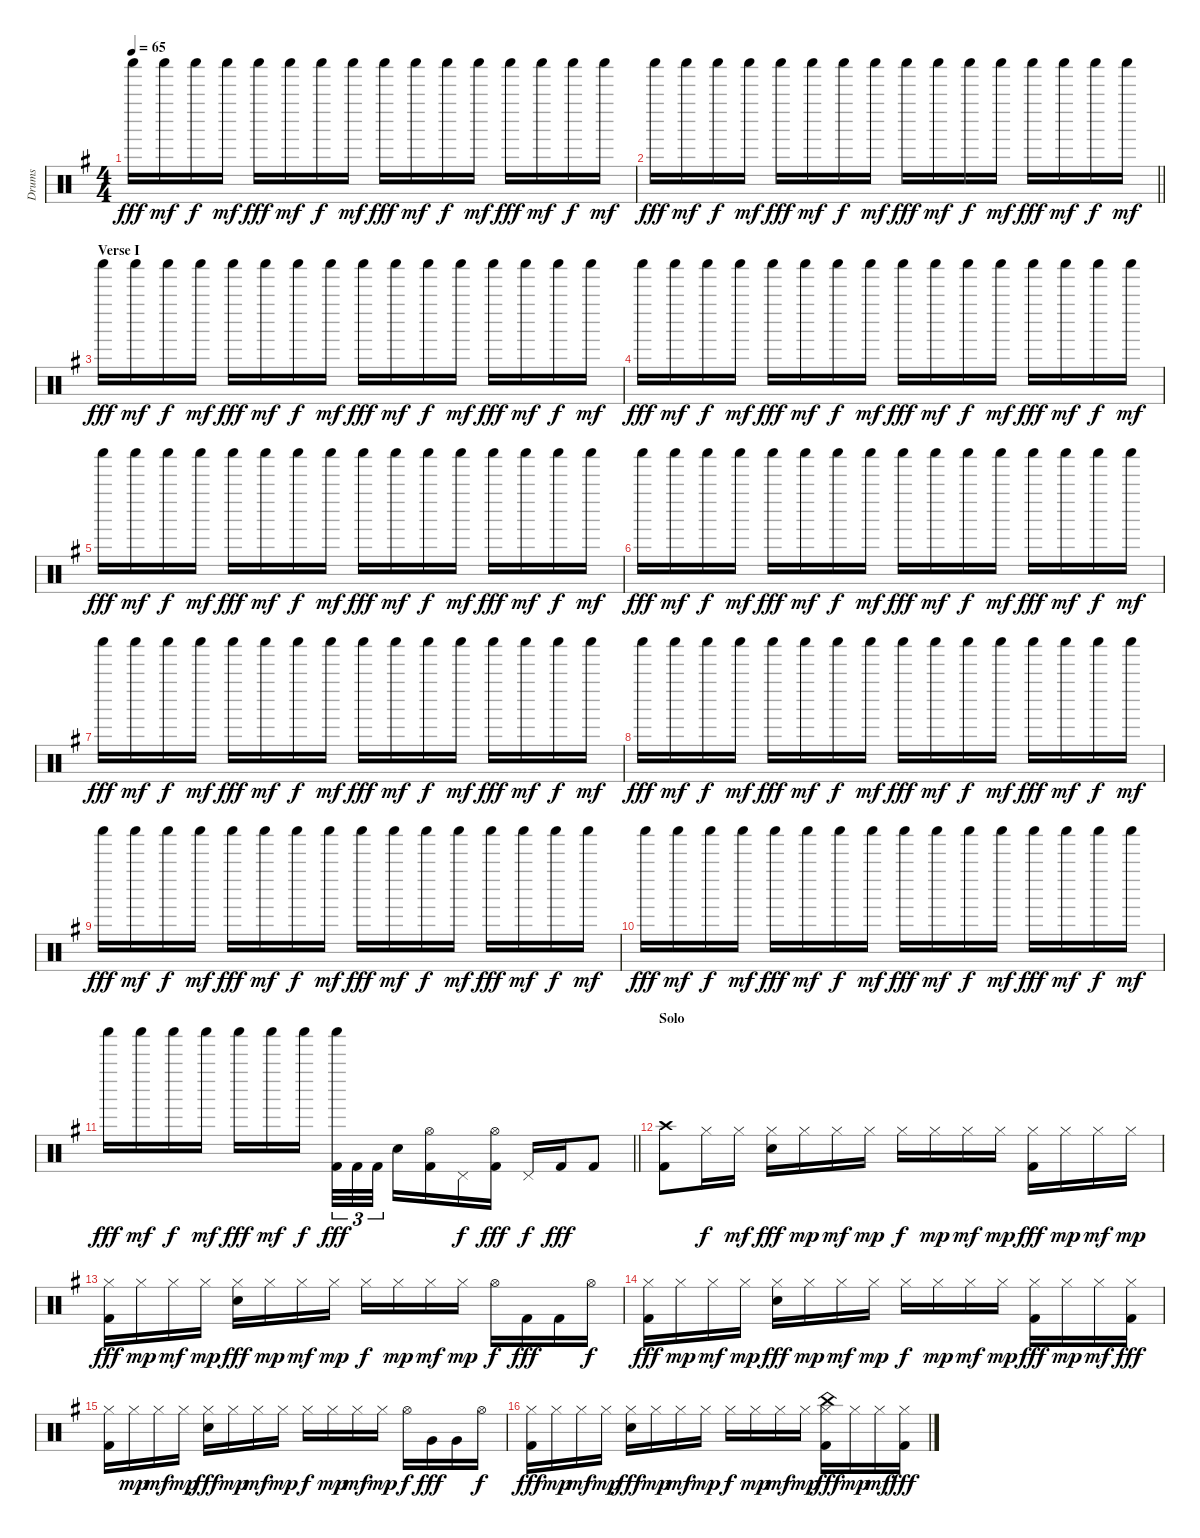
\track ("Drums" "Drums") {instrument percussion}
\staff {score}
\articulation defaults
\ts (4 4)
\tempo 65
\clef neutral
\ks eminor "Shaker (hit)".16{dy fff} "Shaker (hit)".16{dy mf} "Shaker (hit)".16{dy f} "Shaker (hit)".16{dy mf} "Shaker (hit)".16{dy fff} "Shaker (hit)".16{dy mf} "Shaker (hit)".16{dy f} "Shaker (hit)".16{dy mf} "Shaker (hit)".16{dy fff} "Shaker (hit)".16{dy mf} "Shaker (hit)".16{dy f} "Shaker (hit)".16{dy mf} "Shaker (hit)".16{dy fff} "Shaker (hit)".16{dy mf} "Shaker (hit)".16{dy f} "Shaker (hit)".16{dy mf}
|
\barLineRight lightlight "Shaker (hit)".16{dy fff} "Shaker (hit)".16{dy mf} "Shaker (hit)".16{dy f} "Shaker (hit)".16{dy mf} "Shaker (hit)".16{dy fff} "Shaker (hit)".16{dy mf} "Shaker (hit)".16{dy f} "Shaker (hit)".16{dy mf} "Shaker (hit)".16{dy fff} "Shaker (hit)".16{dy mf} "Shaker (hit)".16{dy f} "Shaker (hit)".16{dy mf} "Shaker (hit)".16{dy fff} "Shaker (hit)".16{dy mf} "Shaker (hit)".16{dy f} "Shaker (hit)".16{dy mf}
|
\section ("" "Verse I")
"Shaker (hit)".16{dy fff} "Shaker (hit)".16{dy mf} "Shaker (hit)".16{dy f} "Shaker (hit)".16{dy mf} "Shaker (hit)".16{dy fff} "Shaker (hit)".16{dy mf} "Shaker (hit)".16{dy f} "Shaker (hit)".16{dy mf} "Shaker (hit)".16{dy fff} "Shaker (hit)".16{dy mf} "Shaker (hit)".16{dy f} "Shaker (hit)".16{dy mf} "Shaker (hit)".16{dy fff} "Shaker (hit)".16{dy mf} "Shaker (hit)".16{dy f} "Shaker (hit)".16{dy mf} |
"Shaker (hit)".16{dy fff} "Shaker (hit)".16{dy mf} "Shaker (hit)".16{dy f} "Shaker (hit)".16{dy mf} "Shaker (hit)".16{dy fff} "Shaker (hit)".16{dy mf} "Shaker (hit)".16{dy f} "Shaker (hit)".16{dy mf} "Shaker (hit)".16{dy fff} "Shaker (hit)".16{dy mf} "Shaker (hit)".16{dy f} "Shaker (hit)".16{dy mf} "Shaker (hit)".16{dy fff} "Shaker (hit)".16{dy mf} "Shaker (hit)".16{dy f} "Shaker (hit)".16{dy mf} |
"Shaker (hit)".16{dy fff} "Shaker (hit)".16{dy mf} "Shaker (hit)".16{dy f} "Shaker (hit)".16{dy mf} "Shaker (hit)".16{dy fff} "Shaker (hit)".16{dy mf} "Shaker (hit)".16{dy f} "Shaker (hit)".16{dy mf} "Shaker (hit)".16{dy fff} "Shaker (hit)".16{dy mf} "Shaker (hit)".16{dy f} "Shaker (hit)".16{dy mf} "Shaker (hit)".16{dy fff} "Shaker (hit)".16{dy mf} "Shaker (hit)".16{dy f} "Shaker (hit)".16{dy mf} |
"Shaker (hit)".16{dy fff} "Shaker (hit)".16{dy mf} "Shaker (hit)".16{dy f} "Shaker (hit)".16{dy mf} "Shaker (hit)".16{dy fff} "Shaker (hit)".16{dy mf} "Shaker (hit)".16{dy f} "Shaker (hit)".16{dy mf} "Shaker (hit)".16{dy fff} "Shaker (hit)".16{dy mf} "Shaker (hit)".16{dy f} "Shaker (hit)".16{dy mf} "Shaker (hit)".16{dy fff} "Shaker (hit)".16{dy mf} "Shaker (hit)".16{dy f} "Shaker (hit)".16{dy mf} |
"Shaker (hit)".16{dy fff} "Shaker (hit)".16{dy mf} "Shaker (hit)".16{dy f} "Shaker (hit)".16{dy mf} "Shaker (hit)".16{dy fff} "Shaker (hit)".16{dy mf} "Shaker (hit)".16{dy f} "Shaker (hit)".16{dy mf} "Shaker (hit)".16{dy fff} "Shaker (hit)".16{dy mf} "Shaker (hit)".16{dy f} "Shaker (hit)".16{dy mf} "Shaker (hit)".16{dy fff} "Shaker (hit)".16{dy mf} "Shaker (hit)".16{dy f} "Shaker (hit)".16{dy mf} |
"Shaker (hit)".16{dy fff} "Shaker (hit)".16{dy mf} "Shaker (hit)".16{dy f} "Shaker (hit)".16{dy mf} "Shaker (hit)".16{dy fff} "Shaker (hit)".16{dy mf} "Shaker (hit)".16{dy f} "Shaker (hit)".16{dy mf} "Shaker (hit)".16{dy fff} "Shaker (hit)".16{dy mf} "Shaker (hit)".16{dy f} "Shaker (hit)".16{dy mf} "Shaker (hit)".16{dy fff} "Shaker (hit)".16{dy mf} "Shaker (hit)".16{dy f} "Shaker (hit)".16{dy mf} |
"Shaker (hit)".16{dy fff} "Shaker (hit)".16{dy mf} "Shaker (hit)".16{dy f} "Shaker (hit)".16{dy mf} "Shaker (hit)".16{dy fff} "Shaker (hit)".16{dy mf} "Shaker (hit)".16{dy f} "Shaker (hit)".16{dy mf} "Shaker (hit)".16{dy fff} "Shaker (hit)".16{dy mf} "Shaker (hit)".16{dy f} "Shaker (hit)".16{dy mf} "Shaker (hit)".16{dy fff} "Shaker (hit)".16{dy mf} "Shaker (hit)".16{dy f} "Shaker (hit)".16{dy mf} |
"Shaker (hit)".16{dy fff} "Shaker (hit)".16{dy mf} "Shaker (hit)".16{dy f} "Shaker (hit)".16{dy mf} "Shaker (hit)".16{dy fff} "Shaker (hit)".16{dy mf} "Shaker (hit)".16{dy f} "Shaker (hit)".16{dy mf} "Shaker (hit)".16{dy fff} "Shaker (hit)".16{dy mf} "Shaker (hit)".16{dy f} "Shaker (hit)".16{dy mf} "Shaker (hit)".16{dy fff} "Shaker (hit)".16{dy mf} "Shaker (hit)".16{dy f} "Shaker (hit)".16{dy mf} |
\barLineRight lightlight "Shaker (hit)".16{dy fff} "Shaker (hit)".16{dy mf} "Shaker (hit)".16{dy f} "Shaker (hit)".16{dy mf} "Shaker (hit)".16{dy fff} "Shaker (hit)".16{dy mf} "Shaker (hit)".16{dy f beam splitsecondary}
("Shaker (hit)" "Kick (hit) 2").32{tu (3 2) dy fff} "Kick (hit) 2".32{tu (3 2)} "Kick (hit) 2".32{tu (3 2)} "Snare (hit) 2".16 ("Hi-Hat (open)" "Kick (hit) 2").16 "Pedal Hi-Hat (hit)".16{dy f} ("Hi-Hat (open)" "Kick (hit) 2").16{dy fff} "Pedal Hi-Hat (hit)".16{dy f} "Kick (hit) 2".16{dy fff} "Kick (hit) 2".8 |
\section ("" "Solo")
("Crash high (hit)" "Kick (hit) 2").8 "Hi-Hat (closed)".16{dy f} "Hi-Hat (closed)".16{dy mf} ("Hi-Hat (closed)" "Snare (hit) 2").16{dy fff} "Hi-Hat (closed)".16{dy mp} "Hi-Hat (closed)".16{dy mf} "Hi-Hat (closed)".16{dy mp} "Hi-Hat (closed)".16{dy f} "Hi-Hat (closed)".16{dy mp} "Hi-Hat (closed)".16{dy mf} "Hi-Hat (closed)".16{dy mp} ("Hi-Hat (closed)" "Kick (hit) 2").16{dy fff} "Hi-Hat (closed)".16{dy mp} "Hi-Hat (closed)".16{dy mf} "Hi-Hat (closed)".16{dy mp} |
("Hi-Hat (closed)" "Kick (hit) 2").16{dy fff} "Hi-Hat (closed)".16{dy mp} "Hi-Hat (closed)".16{dy mf} "Hi-Hat (closed)".16{dy mp} ("Hi-Hat (closed)" "Snare (hit) 2").16{dy fff} "Hi-Hat (closed)".16{dy mp} "Hi-Hat (closed)".16{dy mf} "Hi-Hat (closed)".16{dy mp} "Hi-Hat (closed)".16{dy f} "Hi-Hat (closed)".16{dy mp} "Hi-Hat (closed)".16{dy mf} "Hi-Hat (closed)".16{dy mp} "Hi-Hat (open)".16{dy f} "Kick (hit) 2".16{dy fff} "Kick (hit) 2".16 "Hi-Hat (open)".16{dy f} |
("Hi-Hat (closed)" "Kick (hit) 2").16{dy fff} "Hi-Hat (closed)".16{dy mp} "Hi-Hat (closed)".16{dy mf} "Hi-Hat (closed)".16{dy mp} ("Hi-Hat (closed)" "Snare (hit) 2").16{dy fff} "Hi-Hat (closed)".16{dy mp} "Hi-Hat (closed)".16{dy mf} "Hi-Hat (closed)".16{dy mp} "Hi-Hat (closed)".16{dy f} "Hi-Hat (closed)".16{dy mp} "Hi-Hat (closed)".16{dy mf} "Hi-Hat (closed)".16{dy mp} ("Hi-Hat (closed)" "Kick (hit) 2").16{dy fff} "Hi-Hat (closed)".16{dy mp} "Hi-Hat (closed)".16{dy mf} ("Hi-Hat (closed)" "Kick (hit) 2").16{dy fff} |
("Hi-Hat (closed)" "Kick (hit) 2").16 "Hi-Hat (closed)".16{dy mp} "Hi-Hat (closed)".16{dy mf} "Hi-Hat (closed)".16{dy mp} ("Hi-Hat (closed)" "Snare (hit) 2").16{dy fff} "Hi-Hat (closed)".16{dy mp} "Hi-Hat (closed)".16{dy mf} "Hi-Hat (closed)".16{dy mp} "Hi-Hat (closed)".16{dy f} "Hi-Hat (closed)".16{dy mp} "Hi-Hat (closed)".16{dy mf} "Hi-Hat (closed)".16{dy mp} "Hi-Hat (open)".16{dy f} "Very Low Tom (hit)".16{dy fff} "Very Low Tom (hit)".16 "Hi-Hat (open)".16{dy f} |
("Hi-Hat (closed)" "Kick (hit) 2").16{dy fff} "Hi-Hat (closed)".16{dy mp} "Hi-Hat (closed)".16{dy mf} "Hi-Hat (closed)".16{dy mp} ("Hi-Hat (closed)" "Snare (hit) 2").16{dy fff} "Hi-Hat (closed)".16{dy mp} "Hi-Hat (closed)".16{dy mf} "Hi-Hat (closed)".16{dy mp} "Hi-Hat (closed)".16{dy f} "Hi-Hat (closed)".16{dy mp} "Hi-Hat (closed)".16{dy mf} "Hi-Hat (closed)".16{dy mp} ("Hi-Hat (closed)" "China (hit)" "Kick (hit) 2").16{dy fff} "Hi-Hat (closed)".16{dy mp} "Hi-Hat (closed)".16{dy mf} ("Hi-Hat (closed)" "Kick (hit) 2").16{dy fff}
